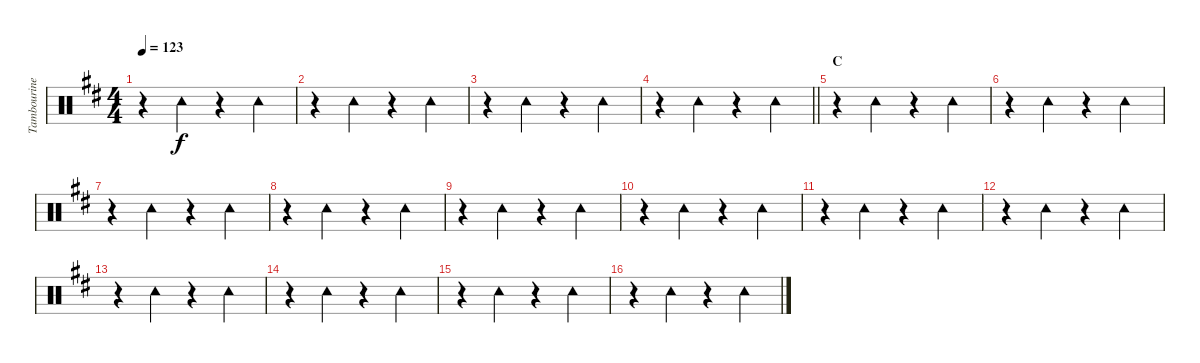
\track ("Tambourine" "Tambourine") {instrument percussion}
\staff {score}
\articulation defaults
\ts (4 4)
\tempo 123
\clef neutral
\ks d
r.4{dy f} "Tambourine (hit)".4 r.4 "Tambourine (hit)".4 |
r.4 "Tambourine (hit)".4 r.4 "Tambourine (hit)".4 |
r.4 "Tambourine (hit)".4 r.4 "Tambourine (hit)".4 |
\barLineRight lightlight
r.4 "Tambourine (hit)".4 r.4 "Tambourine (hit)".4 |
\section ("" "C")
r.4 "Tambourine (hit)".4 r.4 "Tambourine (hit)".4 |
r.4 "Tambourine (hit)".4 r.4 "Tambourine (hit)".4 |
r.4 "Tambourine (hit)".4 r.4 "Tambourine (hit)".4 |
r.4 "Tambourine (hit)".4 r.4 "Tambourine (hit)".4 |
r.4 "Tambourine (hit)".4 r.4 "Tambourine (hit)".4 |
r.4 "Tambourine (hit)".4 r.4 "Tambourine (hit)".4 |
r.4 "Tambourine (hit)".4 r.4 "Tambourine (hit)".4 |
r.4 "Tambourine (hit)".4 r.4 "Tambourine (hit)".4 |
r.4 "Tambourine (hit)".4 r.4 "Tambourine (hit)".4 |
r.4 "Tambourine (hit)".4 r.4 "Tambourine (hit)".4 |
r.4 "Tambourine (hit)".4 r.4 "Tambourine (hit)".4 |
r.4 "Tambourine (hit)".4 r.4 "Tambourine (hit)".4
